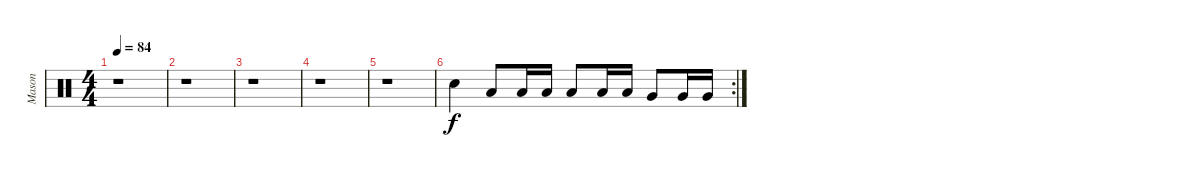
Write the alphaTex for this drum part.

\track ("Mason" "Mason") {instrument percussion}
\staff {score}
\articulation defaults
\ts (4 4)
\tempo 84
\clef neutral
\ks c
r.1{dy f} |
r.1 |
r.1 |
r.1 |
r.1 |
\rc 2 "Snare (hit) 2".4 "Low Tom (hit)".8 "Low Tom (hit)".16 "Low Tom (hit)".16 "Low Floor Tom (hit)".8 "Low Floor Tom (hit)".16 "Low Floor Tom (hit)".16 "Very Low Tom (hit)".8 "Very Low Tom (hit)".16 "Very Low Tom (hit)".16
